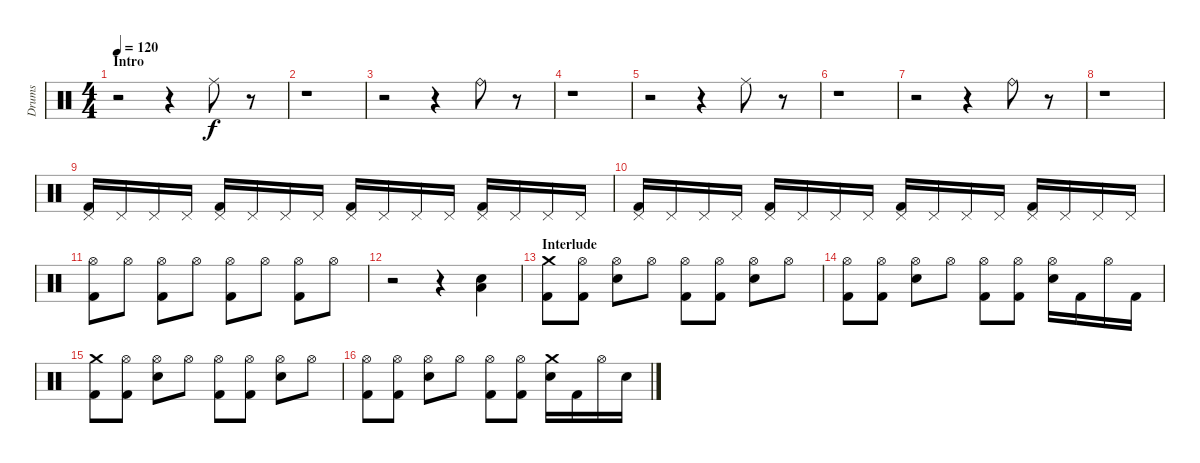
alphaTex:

\track ("Drums" "Drums") {instrument percussion}
\staff {score}
\articulation defaults
\ts (4 4)
\section ("" "Intro")
\tempo 120
\clef neutral
\ks c
r.2{dy f} r.4 "Ride (middle)".8 r.8 |
r.1 |
r.2 r.4 "Ride (bell)".8 r.8 |
r.1 |
r.2 r.4 "Ride (middle)".8 r.8 |
r.1 |
r.2 r.4 "Ride (bell)".8 r.8 |
r.1 |
("Pedal Hi-Hat (hit)" "Kick (hit) 2").16 "Pedal Hi-Hat (hit)".16 "Pedal Hi-Hat (hit)".16 "Pedal Hi-Hat (hit)".16 ("Pedal Hi-Hat (hit)" "Kick (hit) 2").16 "Pedal Hi-Hat (hit)".16 "Pedal Hi-Hat (hit)".16 "Pedal Hi-Hat (hit)".16 ("Pedal Hi-Hat (hit)" "Kick (hit) 2").16 "Pedal Hi-Hat (hit)".16 "Pedal Hi-Hat (hit)".16 "Pedal Hi-Hat (hit)".16 ("Pedal Hi-Hat (hit)" "Kick (hit) 2").16 "Pedal Hi-Hat (hit)".16 "Pedal Hi-Hat (hit)".16 "Pedal Hi-Hat (hit)".16 |
("Pedal Hi-Hat (hit)" "Kick (hit) 2").16 "Pedal Hi-Hat (hit)".16 "Pedal Hi-Hat (hit)".16 "Pedal Hi-Hat (hit)".16 ("Pedal Hi-Hat (hit)" "Kick (hit) 2").16 "Pedal Hi-Hat (hit)".16 "Pedal Hi-Hat (hit)".16 "Pedal Hi-Hat (hit)".16 ("Pedal Hi-Hat (hit)" "Kick (hit) 2").16 "Pedal Hi-Hat (hit)".16 "Pedal Hi-Hat (hit)".16 "Pedal Hi-Hat (hit)".16 ("Pedal Hi-Hat (hit)" "Kick (hit) 2").16 "Pedal Hi-Hat (hit)".16 "Pedal Hi-Hat (hit)".16 "Pedal Hi-Hat (hit)".16 |
("Hi-Hat (open)" "Kick (hit) 2").8 "Hi-Hat (open)".8 ("Hi-Hat (open)" "Kick (hit) 2").8 "Hi-Hat (open)".8 ("Hi-Hat (open)" "Kick (hit) 2").8 "Hi-Hat (open)".8 ("Hi-Hat (open)" "Kick (hit) 2").8 "Hi-Hat (open)".8 |
r.2 r.4 ("Electric Snare (hit)" "Low Tom (hit)").4 |
\section ("" "Interlude")
("Crash medium (hit)" "Kick (hit) 2").8 ("Hi-Hat (open)" "Kick (hit) 2").8 ("Hi-Hat (open)" "Electric Snare (hit)").8 "Hi-Hat (open)".8 ("Hi-Hat (open)" "Kick (hit) 2").8 ("Hi-Hat (open)" "Kick (hit) 2").8 ("Hi-Hat (open)" "Electric Snare (hit)").8 "Hi-Hat (open)".8 |
("Hi-Hat (open)" "Kick (hit) 2").8 ("Hi-Hat (open)" "Kick (hit) 2").8 ("Hi-Hat (open)" "Electric Snare (hit)").8 "Hi-Hat (open)".8 ("Hi-Hat (open)" "Kick (hit) 2").8 ("Hi-Hat (open)" "Kick (hit) 2").8 ("Hi-Hat (open)" "Electric Snare (hit)").16 "Kick (hit) 2".16 "Hi-Hat (open)".16 "Kick (hit) 2".16 |
("Crash medium (hit)" "Kick (hit) 2").8 ("Hi-Hat (open)" "Kick (hit) 2").8 ("Hi-Hat (open)" "Electric Snare (hit)").8 "Hi-Hat (open)".8 ("Hi-Hat (open)" "Kick (hit) 2").8 ("Hi-Hat (open)" "Kick (hit) 2").8 ("Hi-Hat (open)" "Electric Snare (hit)").8 "Hi-Hat (open)".8 |
("Hi-Hat (open)" "Kick (hit) 2").8 ("Hi-Hat (open)" "Kick (hit) 2").8 ("Hi-Hat (open)" "Electric Snare (hit)").8 "Hi-Hat (open)".8 ("Hi-Hat (open)" "Kick (hit) 2").8 ("Hi-Hat (open)" "Kick (hit) 2").8 ("Crash medium (hit)" "Electric Snare (hit)").16 "Kick (hit) 2".16 "Hi-Hat (open)".16 "Electric Snare (hit)".16
